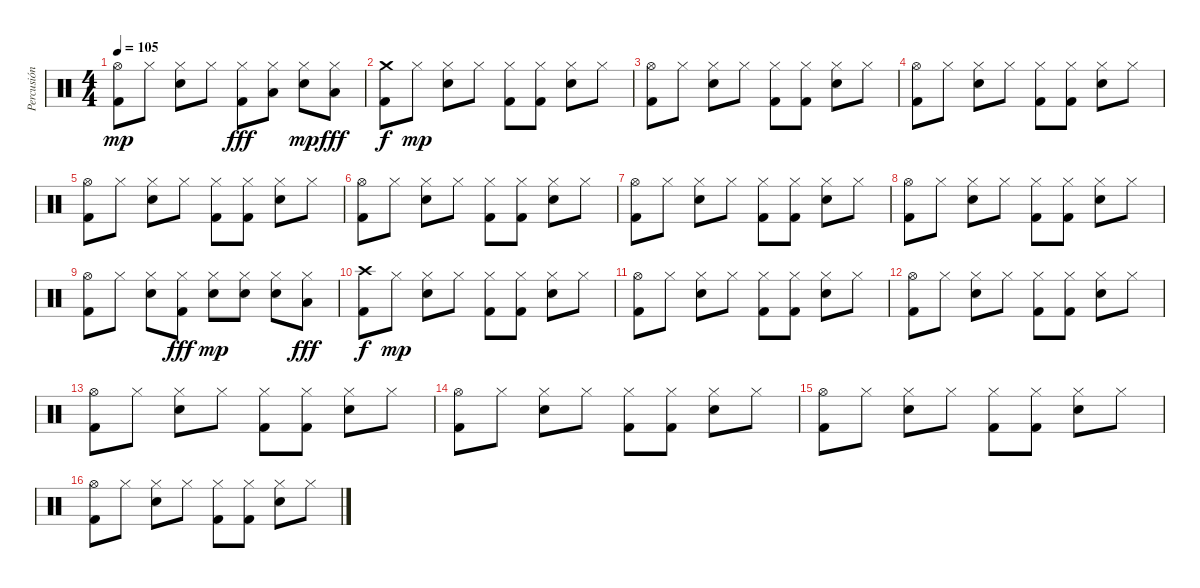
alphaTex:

\track ("Percusión" "Percusión") {instrument percussion}
\staff {score}
\articulation defaults
\ts (4 4)
\tempo 105
\clef neutral
\ks c
("Hi-Hat (open)" "Kick (hit) 2").8{dy mp} "Hi-Hat (closed)".8 ("Hi-Hat (closed)" "Snare (hit) 2").8 "Hi-Hat (closed)".8 ("Hi-Hat (closed)" "Kick (hit) 2").8{dy fff} ("Hi-Hat (closed)" "Low Floor Tom (hit)").8 ("Hi-Hat (closed)" "Snare (hit) 2").8{dy mp} ("Hi-Hat (closed)" "Low Tom (hit)").8{dy fff} |
("Crash medium (hit)" "Kick (hit) 2").8{dy f} "Hi-Hat (closed)".8{dy mp} ("Hi-Hat (closed)" "Snare (hit) 2").8 "Hi-Hat (closed)".8 ("Hi-Hat (closed)" "Kick (hit) 2").8 ("Hi-Hat (closed)" "Kick (hit) 2").8 ("Hi-Hat (closed)" "Snare (hit) 2").8 "Hi-Hat (closed)".8 |
("Hi-Hat (open)" "Kick (hit) 2").8 "Hi-Hat (closed)".8 ("Hi-Hat (closed)" "Snare (hit) 2").8 "Hi-Hat (closed)".8 ("Hi-Hat (closed)" "Kick (hit) 2").8 ("Hi-Hat (closed)" "Kick (hit) 2").8 ("Hi-Hat (closed)" "Snare (hit) 2").8 "Hi-Hat (closed)".8 |
("Hi-Hat (open)" "Kick (hit) 2").8 "Hi-Hat (closed)".8 ("Hi-Hat (closed)" "Snare (hit) 2").8 "Hi-Hat (closed)".8 ("Hi-Hat (closed)" "Kick (hit) 2").8 ("Hi-Hat (closed)" "Kick (hit) 2").8 ("Hi-Hat (closed)" "Snare (hit) 2").8 "Hi-Hat (closed)".8 |
("Hi-Hat (open)" "Kick (hit) 2").8 "Hi-Hat (closed)".8 ("Hi-Hat (closed)" "Snare (hit) 2").8 "Hi-Hat (closed)".8 ("Hi-Hat (closed)" "Kick (hit) 2").8 ("Hi-Hat (closed)" "Kick (hit) 2").8 ("Hi-Hat (closed)" "Snare (hit) 2").8 "Hi-Hat (closed)".8 |
("Hi-Hat (open)" "Kick (hit) 2").8 "Hi-Hat (closed)".8 ("Hi-Hat (closed)" "Snare (hit) 2").8 "Hi-Hat (closed)".8 ("Hi-Hat (closed)" "Kick (hit) 2").8 ("Hi-Hat (closed)" "Kick (hit) 2").8 ("Hi-Hat (closed)" "Snare (hit) 2").8 "Hi-Hat (closed)".8 |
("Hi-Hat (open)" "Kick (hit) 2").8 "Hi-Hat (closed)".8 ("Hi-Hat (closed)" "Snare (hit) 2").8 "Hi-Hat (closed)".8 ("Hi-Hat (closed)" "Kick (hit) 2").8 ("Hi-Hat (closed)" "Kick (hit) 2").8 ("Hi-Hat (closed)" "Snare (hit) 2").8 "Hi-Hat (closed)".8 |
("Hi-Hat (open)" "Kick (hit) 2").8 "Hi-Hat (closed)".8 ("Hi-Hat (closed)" "Snare (hit) 2").8 "Hi-Hat (closed)".8 ("Hi-Hat (closed)" "Kick (hit) 2").8 ("Hi-Hat (closed)" "Kick (hit) 2").8 ("Hi-Hat (closed)" "Snare (hit) 2").8 "Hi-Hat (closed)".8 |
("Hi-Hat (open)" "Kick (hit) 2").8 "Hi-Hat (closed)".8 ("Hi-Hat (closed)" "Snare (hit) 2").8 ("Hi-Hat (closed)" "Kick (hit) 2").8{dy fff} ("Hi-Hat (closed)" "Snare (hit) 2").8{dy mp} ("Hi-Hat (closed)" "Snare (hit) 2").8 ("Hi-Hat (closed)" "Snare (hit) 2").8 ("Hi-Hat (closed)" "Low Tom (hit)").8{dy fff} |
("Crash high (hit)" "Kick (hit) 2").8{dy f} "Hi-Hat (closed)".8{dy mp} ("Hi-Hat (closed)" "Snare (hit) 2").8 "Hi-Hat (closed)".8 ("Hi-Hat (closed)" "Kick (hit) 2").8 ("Hi-Hat (closed)" "Kick (hit) 2").8 ("Hi-Hat (closed)" "Snare (hit) 2").8 "Hi-Hat (closed)".8 |
("Hi-Hat (open)" "Kick (hit) 2").8 "Hi-Hat (closed)".8 ("Hi-Hat (closed)" "Snare (hit) 2").8 "Hi-Hat (closed)".8 ("Hi-Hat (closed)" "Kick (hit) 2").8 ("Hi-Hat (closed)" "Kick (hit) 2").8 ("Hi-Hat (closed)" "Snare (hit) 2").8 "Hi-Hat (closed)".8 |
("Hi-Hat (open)" "Kick (hit) 2").8 "Hi-Hat (closed)".8 ("Hi-Hat (closed)" "Snare (hit) 2").8 "Hi-Hat (closed)".8 ("Hi-Hat (closed)" "Kick (hit) 2").8 ("Hi-Hat (closed)" "Kick (hit) 2").8 ("Hi-Hat (closed)" "Snare (hit) 2").8 "Hi-Hat (closed)".8 |
("Hi-Hat (open)" "Kick (hit) 2").8 "Hi-Hat (closed)".8 ("Hi-Hat (closed)" "Snare (hit) 2").8 "Hi-Hat (closed)".8 ("Hi-Hat (closed)" "Kick (hit) 2").8 ("Hi-Hat (closed)" "Kick (hit) 2").8 ("Hi-Hat (closed)" "Snare (hit) 2").8 "Hi-Hat (closed)".8 |
("Hi-Hat (open)" "Kick (hit) 2").8 "Hi-Hat (closed)".8 ("Hi-Hat (closed)" "Snare (hit) 2").8 "Hi-Hat (closed)".8 ("Hi-Hat (closed)" "Kick (hit) 2").8 ("Hi-Hat (closed)" "Kick (hit) 2").8 ("Hi-Hat (closed)" "Snare (hit) 2").8 "Hi-Hat (closed)".8 |
("Hi-Hat (open)" "Kick (hit) 2").8 "Hi-Hat (closed)".8 ("Hi-Hat (closed)" "Snare (hit) 2").8 "Hi-Hat (closed)".8 ("Hi-Hat (closed)" "Kick (hit) 2").8 ("Hi-Hat (closed)" "Kick (hit) 2").8 ("Hi-Hat (closed)" "Snare (hit) 2").8 "Hi-Hat (closed)".8 |
("Hi-Hat (open)" "Kick (hit) 2").8 "Hi-Hat (closed)".8 ("Hi-Hat (closed)" "Snare (hit) 2").8 "Hi-Hat (closed)".8 ("Hi-Hat (closed)" "Kick (hit) 2").8 ("Hi-Hat (closed)" "Kick (hit) 2").8 ("Hi-Hat (closed)" "Snare (hit) 2").8 "Hi-Hat (closed)".8
